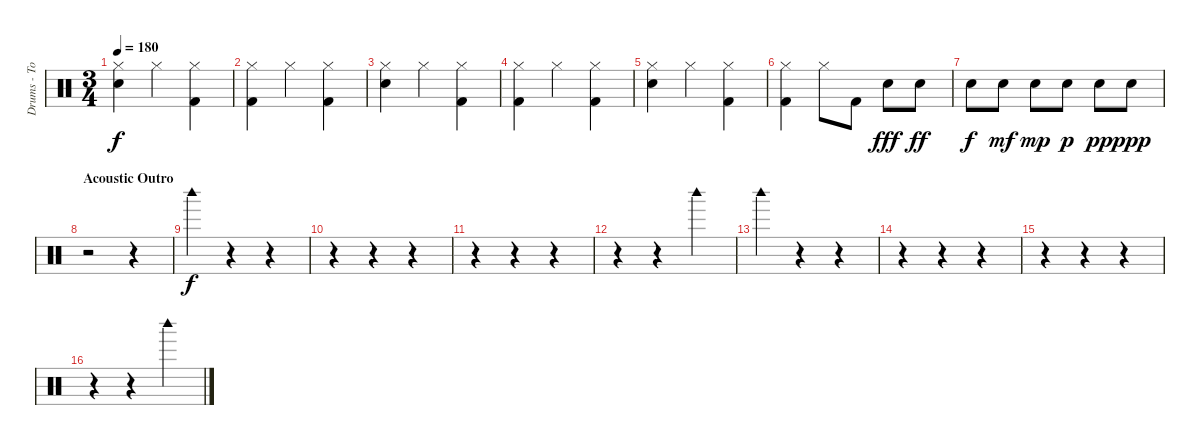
\track ("Drums - Tomas" "Drums - To") {instrument percussion}
\staff {score}
\articulation defaults
\ts (3 4)
\tempo 180
\clef neutral
\ks c
("Hi-Hat (closed)" "Electric Snare (hit)").4{dy f} "Hi-Hat (closed)".4 ("Hi-Hat (closed)" "Kick (hit) 2").4 |
("Hi-Hat (closed)" "Kick (hit) 2").4 "Hi-Hat (closed)".4 ("Hi-Hat (closed)" "Kick (hit) 2").4 |
("Hi-Hat (closed)" "Electric Snare (hit)").4 "Hi-Hat (closed)".4 ("Hi-Hat (closed)" "Kick (hit) 2").4 |
("Hi-Hat (closed)" "Kick (hit) 2").4 "Hi-Hat (closed)".4 ("Hi-Hat (closed)" "Kick (hit) 2").4 |
("Hi-Hat (closed)" "Electric Snare (hit)").4 "Hi-Hat (closed)".4 ("Hi-Hat (closed)" "Kick (hit) 2").4 |
("Hi-Hat (closed)" "Kick (hit) 2").4 "Hi-Hat (closed)".8 "Kick (hit) 2".8 "Electric Snare (hit)".8{dy fff} "Electric Snare (hit)".8{dy ff} |
"Electric Snare (hit)".8{dy f} "Electric Snare (hit)".8{dy mf} "Electric Snare (hit)".8{dy mp} "Electric Snare (hit)".8{dy p} "Electric Snare (hit)".8{dy pp} "Electric Snare (hit)".8{dy ppp} |
\section ("" "Acoustic Outro")
r.2 r.4 |
"Woodblock high (hit)".4{dy f} r.4 r.4 |
r.4 r.4 r.4 |
r.4 r.4 r.4 |
r.4 r.4 "Woodblock high (hit)".4 |
"Woodblock high (hit)".4 r.4 r.4 |
r.4 r.4 r.4 |
r.4 r.4 r.4 |
r.4 r.4 "Woodblock high (hit)".4
